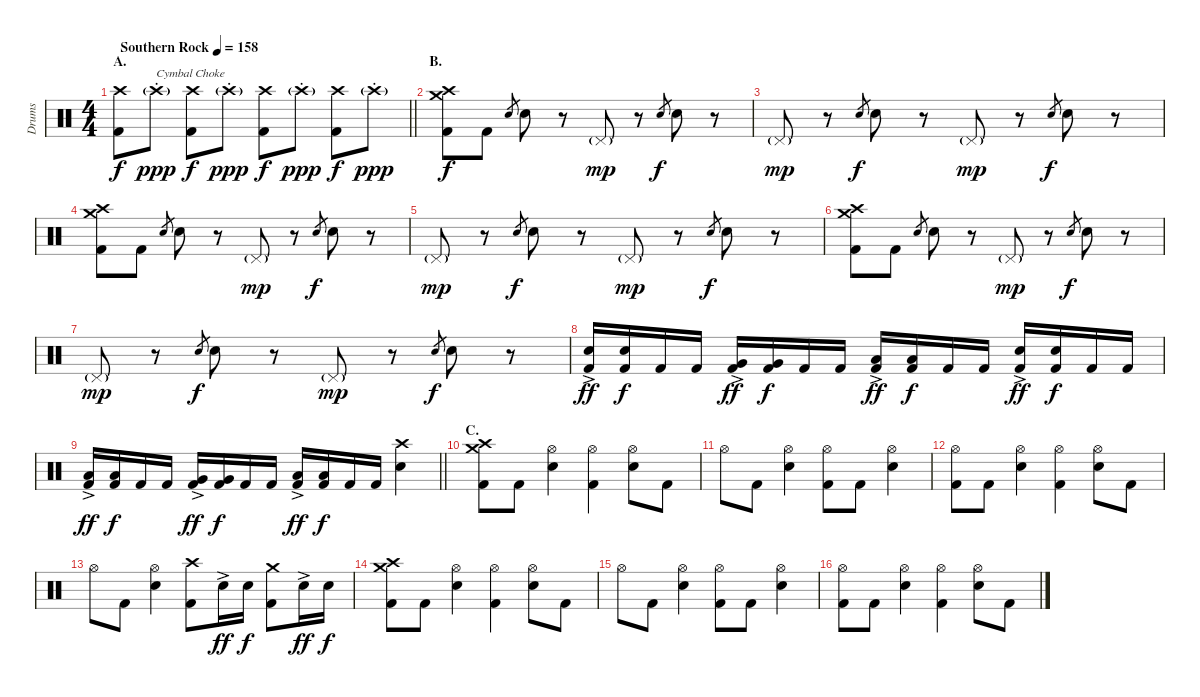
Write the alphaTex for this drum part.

\track ("Drums" "Drums") {instrument percussion}
\staff {score}
\articulation defaults
\ts (4 4)
\section ("" "A.")
\tempo (158 "Southern Rock")
\clef neutral
\barLineRight lightlight
\ks c
("Crash high (hit)" "Kick (hit) 2").8{dy f} "Crash high (hit)"{g st}.8{txt "Cymbal Choke" dy ppp} ("Crash high (hit)" "Kick (hit) 2").8{dy f} "Crash high (hit)"{g st}.8{dy ppp} ("Crash high (hit)" "Kick (hit) 2").8{dy f} "Crash high (hit)"{g st}.8{dy ppp} ("Crash high (hit)" "Kick (hit) 2").8{dy f} "Crash high (hit)"{g st}.8{dy ppp} |
\section ("" "B.")
("Crash medium (hit)" "Crash high (hit)" "Kick (hit) 2").8{dy f} "Kick (hit) 2".8 "Electric Snare (hit)".8{gr} "Electric Snare (hit)".8 r.8 "Pedal Hi-Hat (hit)"{g}.8{dy mp} r.8 "Electric Snare (hit)".8{gr dy f} "Electric Snare (hit)".8 r.8 |
"Pedal Hi-Hat (hit)"{g}.8{dy mp} r.8 "Electric Snare (hit)".8{gr dy f} "Electric Snare (hit)".8 r.8 "Pedal Hi-Hat (hit)"{g}.8{dy mp} r.8 "Electric Snare (hit)".8{gr dy f} "Electric Snare (hit)".8 r.8 |
("Crash medium (hit)" "Crash high (hit)" "Kick (hit) 2").8 "Kick (hit) 2".8 "Electric Snare (hit)".8{gr} "Electric Snare (hit)".8 r.8 "Pedal Hi-Hat (hit)"{g}.8{dy mp} r.8 "Electric Snare (hit)".8{gr dy f} "Electric Snare (hit)".8 r.8 |
"Pedal Hi-Hat (hit)"{g}.8{dy mp} r.8 "Electric Snare (hit)".8{gr dy f} "Electric Snare (hit)".8 r.8 "Pedal Hi-Hat (hit)"{g}.8{dy mp} r.8 "Electric Snare (hit)".8{gr dy f} "Electric Snare (hit)".8 r.8 |
("Crash medium (hit)" "Crash high (hit)" "Kick (hit) 2").8 "Kick (hit) 2".8 "Electric Snare (hit)".8{gr} "Electric Snare (hit)".8 r.8 "Pedal Hi-Hat (hit)"{g}.8{dy mp} r.8 "Electric Snare (hit)".8{gr dy f} "Electric Snare (hit)".8 r.8 |
"Pedal Hi-Hat (hit)"{g}.8{dy mp} r.8 "Electric Snare (hit)".8{gr dy f} "Electric Snare (hit)".8 r.8 "Pedal Hi-Hat (hit)"{g}.8{dy mp} r.8 "Electric Snare (hit)".8{gr dy f} "Electric Snare (hit)".8 r.8 |
("Electric Snare (hit)"{ac} "Kick (hit) 2").16{dy ff} ("Electric Snare (hit)" "Kick (hit) 2").16{dy f} "Kick (hit) 2".16 "Kick (hit) 2".16 ("Very Low Tom (hit)"{ac} "Kick (hit) 2").16{dy ff} ("Very Low Tom (hit)" "Kick (hit) 2").16{dy f} "Kick (hit) 2".16 "Kick (hit) 2".16 ("Low Floor Tom (hit)"{ac} "Kick (hit) 2").16{dy ff} ("Low Floor Tom (hit)" "Kick (hit) 2").16{dy f} "Kick (hit) 2".16 "Kick (hit) 2".16 ("Electric Snare (hit)"{ac} "Kick (hit) 2").16{dy ff} ("Electric Snare (hit)" "Kick (hit) 2").16{dy f} "Kick (hit) 2".16 "Kick (hit) 2".16 |
\barLineRight lightlight
("Low Tom (hit)"{ac} "Kick (hit) 2").16{dy ff} ("Low Tom (hit)" "Kick (hit) 2").16{dy f} "Kick (hit) 2".16 "Kick (hit) 2".16 ("Very Low Tom (hit)"{ac} "Kick (hit) 2").16{dy ff} ("Very Low Tom (hit)" "Kick (hit) 2").16{dy f} "Kick (hit) 2".16 "Kick (hit) 2".16 ("Low Floor Tom (hit)"{ac} "Kick (hit) 2").16{dy ff} ("Low Floor Tom (hit)" "Kick (hit) 2").16{dy f} "Kick (hit) 2".16 "Kick (hit) 2".16 ("Crash high (hit)" "Electric Snare (hit)").4 |
\section ("" "C.")
("Crash medium (hit)" "Crash high (hit)" "Kick (hit) 2").8 "Kick (hit) 2".8 ("Hi-Hat (open)" "Electric Snare (hit)").4 ("Hi-Hat (open)" "Kick (hit) 2").4 ("Hi-Hat (open)" "Electric Snare (hit)").8 "Kick (hit) 2".8 |
"Hi-Hat (open)".8 "Kick (hit) 2".8 ("Hi-Hat (open)" "Electric Snare (hit)").4 ("Hi-Hat (open)" "Kick (hit) 2").8 "Kick (hit) 2".8 ("Hi-Hat (open)" "Electric Snare (hit)").4 |
("Hi-Hat (open)" "Kick (hit) 2").8 "Kick (hit) 2".8 ("Hi-Hat (open)" "Electric Snare (hit)").4 ("Hi-Hat (open)" "Kick (hit) 2").4 ("Hi-Hat (open)" "Electric Snare (hit)").8 "Kick (hit) 2".8 |
"Hi-Hat (open)".8 "Kick (hit) 2".8 ("Hi-Hat (open)" "Electric Snare (hit)").4 ("Crash high (hit)" "Kick (hit) 2").8 "Electric Snare (hit)"{ac}.16{dy ff} "Electric Snare (hit)".16{dy f} ("Crash medium (hit)" "Kick (hit) 2").8 "Electric Snare (hit)"{ac}.16{dy ff} "Electric Snare (hit)".16{dy f} |
("Crash medium (hit)" "Crash high (hit)" "Kick (hit) 2").8 "Kick (hit) 2".8 ("Hi-Hat (open)" "Electric Snare (hit)").4 ("Hi-Hat (open)" "Kick (hit) 2").4 ("Hi-Hat (open)" "Electric Snare (hit)").8 "Kick (hit) 2".8 |
"Hi-Hat (open)".8 "Kick (hit) 2".8 ("Hi-Hat (open)" "Electric Snare (hit)").4 ("Hi-Hat (open)" "Kick (hit) 2").8 "Kick (hit) 2".8 ("Hi-Hat (open)" "Electric Snare (hit)").4 |
("Hi-Hat (open)" "Kick (hit) 2").8 "Kick (hit) 2".8 ("Hi-Hat (open)" "Electric Snare (hit)").4 ("Hi-Hat (open)" "Kick (hit) 2").4 ("Hi-Hat (open)" "Electric Snare (hit)").8 "Kick (hit) 2".8
